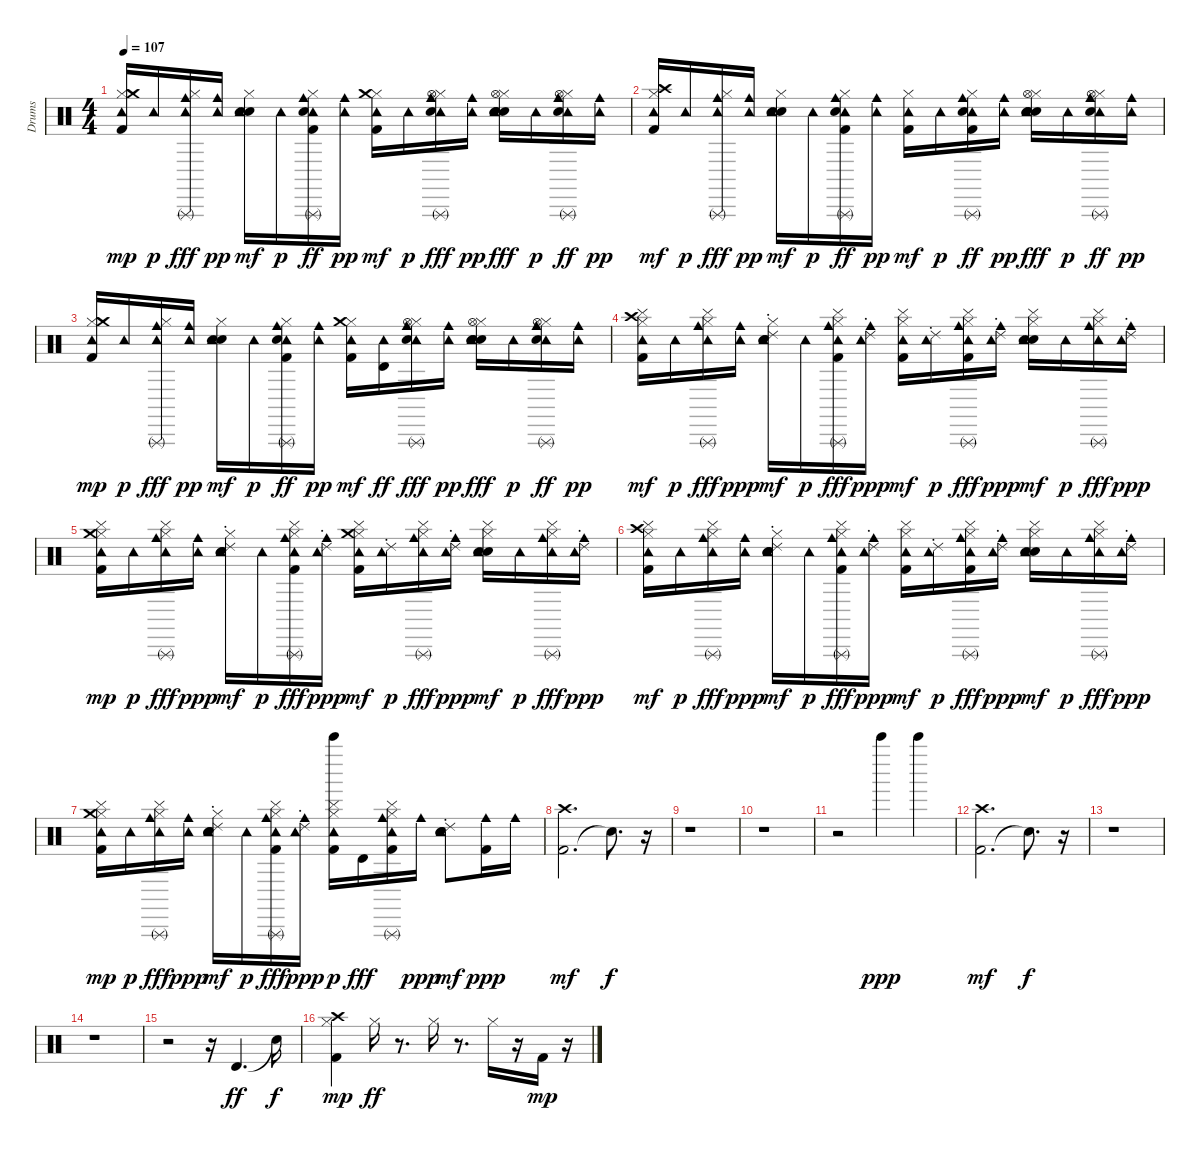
\track ("Drums" "Drums") {instrument percussion}
\staff {score}
\articulation defaults
\ts (4 4)
\tempo 107
\clef neutral
\ks c
("Kick (hit) 2" "Hi-Hat (closed)" "Tambourine (hit)" "Crash medium (hit)").16{dy mp} "Tambourine (hit)".16{dy p} ("Hi-Hat (closed)" "Tambourine (hit)" "Cowbell medium (hit)" "Triangle (rnute)").16{dy fff} ("Tambourine (hit)" "Cowbell medium (hit)").16{dy pp} ("Hand Clap (hit)" "Electric Snare (hit)" "Hi-Hat (closed)" "Tambourine (hit)").16{dy mf} "Tambourine (hit)".16{dy p} ("Kick (hit) 2" "Hi-Hat (closed)" "Tambourine (hit)" "Cowbell medium (hit)" "Triangle (rnute)" "Metronome (bell)").16{dy ff} ("Tambourine (hit)" "Cowbell medium (hit)").16{dy pp} ("Kick (hit) 2" "Hi-Hat (closed)" "Tambourine (hit)" "Crash medium (hit)").16{dy mf} "Tambourine (hit)".16{dy p} ("Hi-Hat (closed)" "Tambourine (hit)" "Cowbell medium (hit)" "Triangle (rnute)" "Metronome (bell)" "Hi-Hat (open)").16{dy fff} ("Tambourine (hit)" "Cowbell medium (hit)").16{dy pp} ("Hand Clap (hit)" "Electric Snare (hit)" "Hi-Hat (closed)" "Tambourine (hit)" "Metronome (bell)" "Hi-Hat (open)").16{dy fff} "Tambourine (hit)".16{dy p} ("Hi-Hat (closed)" "Tambourine (hit)" "Cowbell medium (hit)" "Triangle (rnute)" "Metronome (bell)" "Hi-Hat (open)").16{dy ff} ("Tambourine (hit)" "Cowbell medium (hit)").16{dy pp} |
("Kick (hit) 2" "Hi-Hat (closed)" "Crash high (hit)" "Tambourine (hit)").16{dy mf} "Tambourine (hit)".16{dy p} ("Hi-Hat (closed)" "Tambourine (hit)" "Cowbell medium (hit)" "Triangle (rnute)").16{dy fff} ("Tambourine (hit)" "Cowbell medium (hit)").16{dy pp} ("Hand Clap (hit)" "Electric Snare (hit)" "Hi-Hat (closed)" "Tambourine (hit)").16{dy mf} "Tambourine (hit)".16{dy p} ("Kick (hit) 2" "Hi-Hat (closed)" "Tambourine (hit)" "Cowbell medium (hit)" "Triangle (rnute)" "Metronome (bell)").16{dy ff} ("Tambourine (hit)" "Cowbell medium (hit)").16{dy pp} ("Kick (hit) 2" "Hi-Hat (closed)" "Tambourine (hit)").16{dy mf} "Tambourine (hit)".16{dy p} ("Kick (hit) 2" "Hi-Hat (closed)" "Tambourine (hit)" "Cowbell medium (hit)" "Triangle (rnute)" "Metronome (bell)").16{dy ff} ("Tambourine (hit)" "Cowbell medium (hit)").16{dy pp} ("Hand Clap (hit)" "Electric Snare (hit)" "Hi-Hat (closed)" "Tambourine (hit)" "Metronome (bell)" "Hi-Hat (open)").16{dy fff} "Tambourine (hit)".16{dy p} ("Hi-Hat (closed)" "Tambourine (hit)" "Cowbell medium (hit)" "Triangle (rnute)" "Metronome (bell)" "Hi-Hat (open)").16{dy ff} ("Tambourine (hit)" "Cowbell medium (hit)").16{dy pp} |
("Kick (hit) 2" "Hi-Hat (closed)" "Tambourine (hit)" "Crash medium (hit)").16{dy mp} "Tambourine (hit)".16{dy p} ("Hi-Hat (closed)" "Tambourine (hit)" "Cowbell medium (hit)" "Triangle (rnute)").16{dy fff} ("Tambourine (hit)" "Cowbell medium (hit)").16{dy pp} ("Hand Clap (hit)" "Electric Snare (hit)" "Hi-Hat (closed)" "Tambourine (hit)").16{dy mf} "Tambourine (hit)".16{dy p} ("Kick (hit) 2" "Hi-Hat (closed)" "Tambourine (hit)" "Cowbell medium (hit)" "Triangle (rnute)" "Metronome (bell)").16{dy ff} ("Tambourine (hit)" "Cowbell medium (hit)").16{dy pp} ("Kick (hit) 2" "Hi-Hat (closed)" "Tambourine (hit)" "Crash medium (hit)").16{dy mf} ("Tambourine (hit)" "Timbale high (hit)").16{dy ff} ("Hi-Hat (closed)" "Tambourine (hit)" "Cowbell medium (hit)" "Triangle (rnute)" "Metronome (bell)" "Hi-Hat (open)").16{dy fff} ("Tambourine (hit)" "Cowbell medium (hit)").16{dy pp} ("Hand Clap (hit)" "Electric Snare (hit)" "Hi-Hat (closed)" "Tambourine (hit)" "Metronome (bell)" "Hi-Hat (open)").16{dy fff} "Tambourine (hit)".16{dy p} ("Hi-Hat (closed)" "Tambourine (hit)" "Cowbell medium (hit)" "Triangle (rnute)" "Metronome (bell)" "Hi-Hat (open)").16{dy ff} ("Tambourine (hit)" "Cowbell medium (hit)").16{dy pp} |
("Cymbal (hit)" "Kick (hit) 2" "Hi-Hat (closed)" "Crash high (hit)" "Tambourine (hit)").16{dy mf} "Tambourine (hit)".16{dy p} ("Cymbal (hit)" "Hi-Hat (closed)" "Tambourine (hit)" "Cowbell medium (hit)" "Triangle (rnute)").16{dy fff} ("Tambourine (hit)" "Cowbell medium (hit)").16{dy ppp} ("Ride (choke) 2" "Hand Clap (hit)" "Electric Snare (hit)" "Hi-Hat (closed)" "Tambourine (hit)").16{dy mf} "Tambourine (hit)".16{dy p} ("Cymbal (hit)" "Kick (hit) 2" "Hi-Hat (closed)" "Tambourine (hit)" "Cowbell medium (hit)" "Triangle (rnute)").16{dy fff} ("Ride (choke) 2" "Tambourine (hit)" "Cowbell medium (hit)").16{dy ppp} ("Cymbal (hit)" "Kick (hit) 2" "Hi-Hat (closed)" "Tambourine (hit)").16{dy mf} ("Ride (choke) 2" "Tambourine (hit)").16{dy p} ("Cymbal (hit)" "Kick (hit) 2" "Hi-Hat (closed)" "Tambourine (hit)" "Cowbell medium (hit)" "Triangle (rnute)").16{dy fff} ("Ride (choke) 2" "Tambourine (hit)" "Cowbell medium (hit)").16{dy ppp} ("Cymbal (hit)" "Hand Clap (hit)" "Electric Snare (hit)" "Hi-Hat (closed)" "Tambourine (hit)").16{dy mf} "Tambourine (hit)".16{dy p} ("Cymbal (hit)" "Hi-Hat (closed)" "Tambourine (hit)" "Cowbell medium (hit)" "Triangle (rnute)").16{dy fff} ("Ride (choke) 2" "Tambourine (hit)" "Cowbell medium (hit)").16{dy ppp} |
("Cymbal (hit)" "Kick (hit) 2" "Hi-Hat (closed)" "Tambourine (hit)" "Crash medium (hit)").16{dy mp} "Tambourine (hit)".16{dy p} ("Cymbal (hit)" "Hi-Hat (closed)" "Tambourine (hit)" "Cowbell medium (hit)" "Triangle (rnute)").16{dy fff} ("Tambourine (hit)" "Cowbell medium (hit)").16{dy ppp} ("Ride (choke) 2" "Hand Clap (hit)" "Electric Snare (hit)" "Hi-Hat (closed)" "Tambourine (hit)").16{dy mf} "Tambourine (hit)".16{dy p} ("Cymbal (hit)" "Kick (hit) 2" "Hi-Hat (closed)" "Tambourine (hit)" "Cowbell medium (hit)" "Triangle (rnute)").16{dy fff} ("Ride (choke) 2" "Tambourine (hit)" "Cowbell medium (hit)").16{dy ppp} ("Cymbal (hit)" "Kick (hit) 2" "Hi-Hat (closed)" "Tambourine (hit)" "Crash medium (hit)").16{dy mf} ("Ride (choke) 2" "Tambourine (hit)").16{dy p} ("Cymbal (hit)" "Hi-Hat (closed)" "Tambourine (hit)" "Cowbell medium (hit)" "Triangle (rnute)").16{dy fff} ("Ride (choke) 2" "Tambourine (hit)" "Cowbell medium (hit)").16{dy ppp} ("Cymbal (hit)" "Hand Clap (hit)" "Electric Snare (hit)" "Hi-Hat (closed)" "Tambourine (hit)").16{dy mf} "Tambourine (hit)".16{dy p} ("Cymbal (hit)" "Hi-Hat (closed)" "Tambourine (hit)" "Cowbell medium (hit)" "Triangle (rnute)").16{dy fff} ("Ride (choke) 2" "Tambourine (hit)" "Cowbell medium (hit)").16{dy ppp} |
("Cymbal (hit)" "Kick (hit) 2" "Hi-Hat (closed)" "Crash high (hit)" "Tambourine (hit)").16{dy mf} "Tambourine (hit)".16{dy p} ("Cymbal (hit)" "Hi-Hat (closed)" "Tambourine (hit)" "Cowbell medium (hit)" "Triangle (rnute)").16{dy fff} ("Tambourine (hit)" "Cowbell medium (hit)").16{dy ppp} ("Ride (choke) 2" "Hand Clap (hit)" "Electric Snare (hit)" "Hi-Hat (closed)" "Tambourine (hit)").16{dy mf} "Tambourine (hit)".16{dy p} ("Cymbal (hit)" "Kick (hit) 2" "Hi-Hat (closed)" "Tambourine (hit)" "Cowbell medium (hit)" "Triangle (rnute)").16{dy fff} ("Ride (choke) 2" "Tambourine (hit)" "Cowbell medium (hit)").16{dy ppp} ("Cymbal (hit)" "Kick (hit) 2" "Hi-Hat (closed)" "Tambourine (hit)").16{dy mf} ("Ride (choke) 2" "Tambourine (hit)").16{dy p} ("Cymbal (hit)" "Kick (hit) 2" "Hi-Hat (closed)" "Tambourine (hit)" "Cowbell medium (hit)" "Triangle (rnute)").16{dy fff} ("Ride (choke) 2" "Tambourine (hit)" "Cowbell medium (hit)").16{dy ppp} ("Cymbal (hit)" "Hand Clap (hit)" "Electric Snare (hit)" "Hi-Hat (closed)" "Tambourine (hit)").16{dy mf} "Tambourine (hit)".16{dy p} ("Cymbal (hit)" "Hi-Hat (closed)" "Tambourine (hit)" "Cowbell medium (hit)" "Triangle (rnute)").16{dy fff} ("Ride (choke) 2" "Tambourine (hit)" "Cowbell medium (hit)").16{dy ppp} |
("Cymbal (hit)" "Kick (hit) 2" "Hi-Hat (closed)" "Tambourine (hit)" "Crash medium (hit)").16{dy mp} "Tambourine (hit)".16{dy p} ("Cymbal (hit)" "Hi-Hat (closed)" "Tambourine (hit)" "Cowbell medium (hit)" "Triangle (rnute)").16{dy fff} ("Tambourine (hit)" "Cowbell medium (hit)").16{dy ppp} ("Ride (choke) 2" "Hand Clap (hit)" "Electric Snare (hit)" "Hi-Hat (closed)" "Tambourine (hit)").16{dy mf} "Tambourine (hit)".16{dy p} ("Cymbal (hit)" "Kick (hit) 2" "Hi-Hat (closed)" "Tambourine (hit)" "Cowbell medium (hit)" "Triangle (rnute)").16{dy fff} ("Ride (choke) 2" "Tambourine (hit)" "Cowbell medium (hit)").16{dy ppp} ("Cymbal (hit)" "Kick (hit) 2" "Hi-Hat (closed)" "Tambourine (hit)" "Bell Tree (hit)").16{dy p} "Timbale high (hit)".16{dy fff} ("Cymbal (hit)" "Kick (hit) 2" "Hi-Hat (closed)" "Tambourine (hit)" "Cowbell medium (hit)" "Triangle (rnute)").16 "Cowbell medium (hit)".16{dy ppp} ("Ride (choke) 2" "Hand Clap (hit)" "Electric Snare (hit)" "Tambourine (hit)").8{dy mf} ("Kick (hit) 2" "Cowbell medium (hit)").16{dy ppp} "Cowbell medium (hit)".16 |
("Kick (hit) 2" "Crash high (hit)").2{d dy mf} "Snare (hit)"{t}.8{d dy f} r.16 |
r.1 |
r.1 |
r.2 "Bell Tree (hit)".4{dy ppp} "Bell Tree (hit)".4 |
("Kick (hit) 2" "Crash high (hit)").2{d dy mf} "Snare (hit)"{t}.8{d dy f} r.16 |
r.1 |
r.1 |
r.2 r.16 "Timbale high (hit)".4{d dy ff} "Snare (hit)"{t}.16{dy f} |
("Kick (hit) 2" "Hi-Hat (closed)" "Crash high (hit)").4{dy mp} "Hi-Hat (closed)".16{dy ff} r.8{d} "Hi-Hat (closed)".16 r.8{d} "Hi-Hat (closed)".16 r.16 "Kick (hit) 2".16{dy mp} r.16
